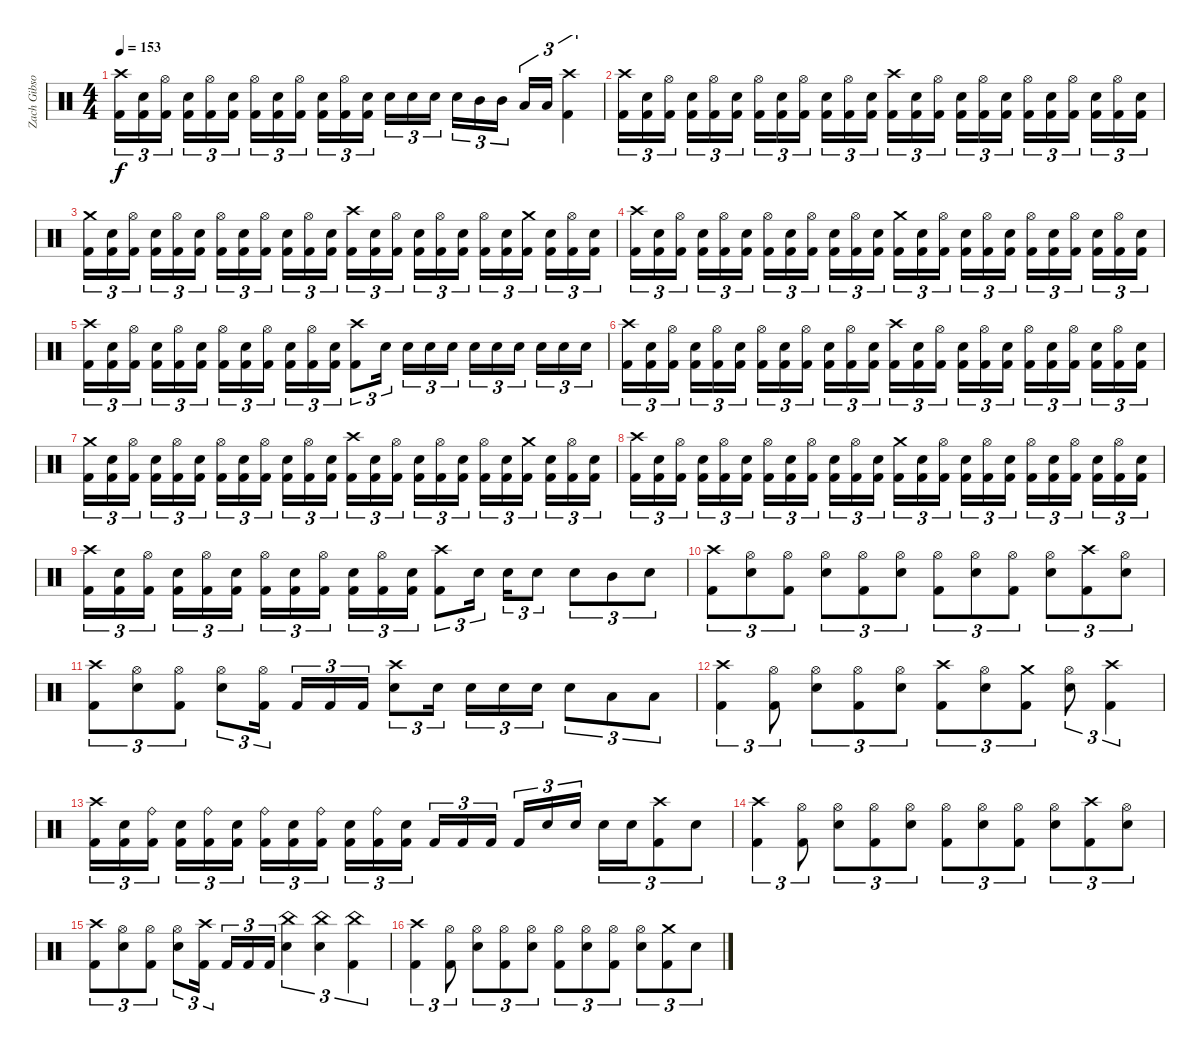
\track ("Zach Gibson (Drums)" "Zach Gibso") {instrument percussion}
\staff {score}
\articulation defaults
\ts (4 4)
\tempo 153
\clef neutral
\ks c
("Crash high (hit)" "Kick (hit) 2").16{tu (3 2) dy f} ("Snare (hit) 2" "Kick (hit) 2").16{tu (3 2)} ("Hi-Hat (open)" "Kick (hit) 2").16{tu (3 2)} ("Snare (hit) 2" "Kick (hit) 2").16{tu (3 2)} ("Hi-Hat (open)" "Kick (hit) 2").16{tu (3 2)} ("Snare (hit) 2" "Kick (hit) 2").16{tu (3 2)} ("Hi-Hat (open)" "Kick (hit) 2").16{tu (3 2)} ("Snare (hit) 2" "Kick (hit) 2").16{tu (3 2)} ("Hi-Hat (open)" "Kick (hit) 2").16{tu (3 2)} ("Snare (hit) 2" "Kick (hit) 2").16{tu (3 2)} ("Hi-Hat (open)" "Kick (hit) 2").16{tu (3 2)} ("Snare (hit) 2" "Kick (hit) 2").16{tu (3 2)} "Snare (hit) 2".16{tu (3 2)} "Snare (hit) 2".16{tu (3 2)} "Snare (hit) 2".16{tu (3 2)} "Snare (hit) 2".16{tu (3 2)} "Mid Tom (hit)".16{tu (3 2)} "Mid Tom (hit)".16{tu (3 2)} "Low Tom (hit)".16{tu (3 2)} "Low Tom (hit)".16{tu (3 2)} ("Crash high (hit)" "Kick (hit) 2").4{tu (3 2)} |
("Crash high (hit)" "Kick (hit) 2").16{tu (3 2)} ("Snare (hit) 2" "Kick (hit) 2").16{tu (3 2)} ("Hi-Hat (open)" "Kick (hit) 2").16{tu (3 2)} ("Snare (hit) 2" "Kick (hit) 2").16{tu (3 2)} ("Hi-Hat (open)" "Kick (hit) 2").16{tu (3 2)} ("Snare (hit) 2" "Kick (hit) 2").16{tu (3 2)} ("Hi-Hat (open)" "Kick (hit) 2").16{tu (3 2)} ("Snare (hit) 2" "Kick (hit) 2").16{tu (3 2)} ("Hi-Hat (open)" "Kick (hit) 2").16{tu (3 2)} ("Snare (hit) 2" "Kick (hit) 2").16{tu (3 2)} ("Hi-Hat (open)" "Kick (hit) 2").16{tu (3 2)} ("Snare (hit) 2" "Kick (hit) 2").16{tu (3 2)} ("Crash high (hit)" "Kick (hit) 2").16{tu (3 2)} ("Snare (hit) 2" "Kick (hit) 2").16{tu (3 2)} ("Hi-Hat (open)" "Kick (hit) 2").16{tu (3 2)} ("Snare (hit) 2" "Kick (hit) 2").16{tu (3 2)} ("Hi-Hat (open)" "Kick (hit) 2").16{tu (3 2)} ("Snare (hit) 2" "Kick (hit) 2").16{tu (3 2)} ("Hi-Hat (open)" "Kick (hit) 2").16{tu (3 2)} ("Snare (hit) 2" "Kick (hit) 2").16{tu (3 2)} ("Hi-Hat (open)" "Kick (hit) 2").16{tu (3 2)} ("Snare (hit) 2" "Kick (hit) 2").16{tu (3 2)} ("Hi-Hat (open)" "Kick (hit) 2").16{tu (3 2)} ("Snare (hit) 2" "Kick (hit) 2").16{tu (3 2)} |
("Crash medium (hit)" "Kick (hit) 2").16{tu (3 2)} ("Snare (hit) 2" "Kick (hit) 2").16{tu (3 2)} ("Hi-Hat (open)" "Kick (hit) 2").16{tu (3 2)} ("Snare (hit) 2" "Kick (hit) 2").16{tu (3 2)} ("Hi-Hat (open)" "Kick (hit) 2").16{tu (3 2)} ("Snare (hit) 2" "Kick (hit) 2").16{tu (3 2)} ("Hi-Hat (open)" "Kick (hit) 2").16{tu (3 2)} ("Snare (hit) 2" "Kick (hit) 2").16{tu (3 2)} ("Hi-Hat (open)" "Kick (hit) 2").16{tu (3 2)} ("Snare (hit) 2" "Kick (hit) 2").16{tu (3 2)} ("Hi-Hat (open)" "Kick (hit) 2").16{tu (3 2)} ("Snare (hit) 2" "Kick (hit) 2").16{tu (3 2)} ("Crash high (hit)" "Kick (hit) 2").16{tu (3 2)} ("Snare (hit) 2" "Kick (hit) 2").16{tu (3 2)} ("Hi-Hat (open)" "Kick (hit) 2").16{tu (3 2)} ("Snare (hit) 2" "Kick (hit) 2").16{tu (3 2)} ("Hi-Hat (open)" "Kick (hit) 2").16{tu (3 2)} ("Snare (hit) 2" "Kick (hit) 2").16{tu (3 2)} ("Hi-Hat (open)" "Kick (hit) 2").16{tu (3 2)} ("Snare (hit) 2" "Kick (hit) 2").16{tu (3 2)} ("Crash medium (hit)" "Kick (hit) 2").16{tu (3 2)} ("Snare (hit) 2" "Kick (hit) 2").16{tu (3 2)} ("Hi-Hat (open)" "Kick (hit) 2").16{tu (3 2)} ("Snare (hit) 2" "Kick (hit) 2").16{tu (3 2)} |
("Crash high (hit)" "Kick (hit) 2").16{tu (3 2)} ("Snare (hit) 2" "Kick (hit) 2").16{tu (3 2)} ("Hi-Hat (open)" "Kick (hit) 2").16{tu (3 2)} ("Snare (hit) 2" "Kick (hit) 2").16{tu (3 2)} ("Hi-Hat (open)" "Kick (hit) 2").16{tu (3 2)} ("Snare (hit) 2" "Kick (hit) 2").16{tu (3 2)} ("Hi-Hat (open)" "Kick (hit) 2").16{tu (3 2)} ("Snare (hit) 2" "Kick (hit) 2").16{tu (3 2)} ("Hi-Hat (open)" "Kick (hit) 2").16{tu (3 2)} ("Snare (hit) 2" "Kick (hit) 2").16{tu (3 2)} ("Hi-Hat (open)" "Kick (hit) 2").16{tu (3 2)} ("Snare (hit) 2" "Kick (hit) 2").16{tu (3 2)} ("Crash medium (hit)" "Kick (hit) 2").16{tu (3 2)} ("Snare (hit) 2" "Kick (hit) 2").16{tu (3 2)} ("Hi-Hat (open)" "Kick (hit) 2").16{tu (3 2)} ("Snare (hit) 2" "Kick (hit) 2").16{tu (3 2)} ("Hi-Hat (open)" "Kick (hit) 2").16{tu (3 2)} ("Snare (hit) 2" "Kick (hit) 2").16{tu (3 2)} ("Hi-Hat (open)" "Kick (hit) 2").16{tu (3 2)} ("Snare (hit) 2" "Kick (hit) 2").16{tu (3 2)} ("Hi-Hat (open)" "Kick (hit) 2").16{tu (3 2)} ("Snare (hit) 2" "Kick (hit) 2").16{tu (3 2)} ("Hi-Hat (open)" "Kick (hit) 2").16{tu (3 2)} ("Snare (hit) 2" "Kick (hit) 2").16{tu (3 2)} |
("Crash high (hit)" "Kick (hit) 2").16{tu (3 2)} ("Snare (hit) 2" "Kick (hit) 2").16{tu (3 2)} ("Hi-Hat (open)" "Kick (hit) 2").16{tu (3 2)} ("Snare (hit) 2" "Kick (hit) 2").16{tu (3 2)} ("Hi-Hat (open)" "Kick (hit) 2").16{tu (3 2)} ("Snare (hit) 2" "Kick (hit) 2").16{tu (3 2)} ("Hi-Hat (open)" "Kick (hit) 2").16{tu (3 2)} ("Snare (hit) 2" "Kick (hit) 2").16{tu (3 2)} ("Hi-Hat (open)" "Kick (hit) 2").16{tu (3 2)} ("Snare (hit) 2" "Kick (hit) 2").16{tu (3 2)} ("Hi-Hat (open)" "Kick (hit) 2").16{tu (3 2)} ("Snare (hit) 2" "Kick (hit) 2").16{tu (3 2)} ("Crash high (hit)" "Kick (hit) 2").8{tu (3 2)} "Snare (hit) 2".16{tu (3 2)} "Snare (hit) 2".16{tu (3 2)} "Snare (hit) 2".16{tu (3 2)} "Snare (hit) 2".16{tu (3 2)} "Snare (hit) 2".16{tu (3 2)} "Snare (hit) 2".16{tu (3 2)} "Snare (hit) 2".16{tu (3 2)} "Snare (hit) 2".16{tu (3 2)} "Snare (hit) 2".16{tu (3 2)} "Snare (hit) 2".16{tu (3 2)} |
("Crash high (hit)" "Kick (hit) 2").16{tu (3 2)} ("Snare (hit) 2" "Kick (hit) 2").16{tu (3 2)} ("Hi-Hat (open)" "Kick (hit) 2").16{tu (3 2)} ("Snare (hit) 2" "Kick (hit) 2").16{tu (3 2)} ("Hi-Hat (open)" "Kick (hit) 2").16{tu (3 2)} ("Snare (hit) 2" "Kick (hit) 2").16{tu (3 2)} ("Hi-Hat (open)" "Kick (hit) 2").16{tu (3 2)} ("Snare (hit) 2" "Kick (hit) 2").16{tu (3 2)} ("Hi-Hat (open)" "Kick (hit) 2").16{tu (3 2)} ("Snare (hit) 2" "Kick (hit) 2").16{tu (3 2)} ("Hi-Hat (open)" "Kick (hit) 2").16{tu (3 2)} ("Snare (hit) 2" "Kick (hit) 2").16{tu (3 2)} ("Crash high (hit)" "Kick (hit) 2").16{tu (3 2)} ("Snare (hit) 2" "Kick (hit) 2").16{tu (3 2)} ("Hi-Hat (open)" "Kick (hit) 2").16{tu (3 2)} ("Snare (hit) 2" "Kick (hit) 2").16{tu (3 2)} ("Hi-Hat (open)" "Kick (hit) 2").16{tu (3 2)} ("Snare (hit) 2" "Kick (hit) 2").16{tu (3 2)} ("Hi-Hat (open)" "Kick (hit) 2").16{tu (3 2)} ("Snare (hit) 2" "Kick (hit) 2").16{tu (3 2)} ("Hi-Hat (open)" "Kick (hit) 2").16{tu (3 2)} ("Snare (hit) 2" "Kick (hit) 2").16{tu (3 2)} ("Hi-Hat (open)" "Kick (hit) 2").16{tu (3 2)} ("Snare (hit) 2" "Kick (hit) 2").16{tu (3 2)} |
("Crash medium (hit)" "Kick (hit) 2").16{tu (3 2)} ("Snare (hit) 2" "Kick (hit) 2").16{tu (3 2)} ("Hi-Hat (open)" "Kick (hit) 2").16{tu (3 2)} ("Snare (hit) 2" "Kick (hit) 2").16{tu (3 2)} ("Hi-Hat (open)" "Kick (hit) 2").16{tu (3 2)} ("Snare (hit) 2" "Kick (hit) 2").16{tu (3 2)} ("Hi-Hat (open)" "Kick (hit) 2").16{tu (3 2)} ("Snare (hit) 2" "Kick (hit) 2").16{tu (3 2)} ("Hi-Hat (open)" "Kick (hit) 2").16{tu (3 2)} ("Snare (hit) 2" "Kick (hit) 2").16{tu (3 2)} ("Hi-Hat (open)" "Kick (hit) 2").16{tu (3 2)} ("Snare (hit) 2" "Kick (hit) 2").16{tu (3 2)} ("Crash high (hit)" "Kick (hit) 2").16{tu (3 2)} ("Snare (hit) 2" "Kick (hit) 2").16{tu (3 2)} ("Hi-Hat (open)" "Kick (hit) 2").16{tu (3 2)} ("Snare (hit) 2" "Kick (hit) 2").16{tu (3 2)} ("Hi-Hat (open)" "Kick (hit) 2").16{tu (3 2)} ("Snare (hit) 2" "Kick (hit) 2").16{tu (3 2)} ("Hi-Hat (open)" "Kick (hit) 2").16{tu (3 2)} ("Snare (hit) 2" "Kick (hit) 2").16{tu (3 2)} ("Crash medium (hit)" "Kick (hit) 2").16{tu (3 2)} ("Snare (hit) 2" "Kick (hit) 2").16{tu (3 2)} ("Hi-Hat (open)" "Kick (hit) 2").16{tu (3 2)} ("Snare (hit) 2" "Kick (hit) 2").16{tu (3 2)} |
("Crash high (hit)" "Kick (hit) 2").16{tu (3 2)} ("Snare (hit) 2" "Kick (hit) 2").16{tu (3 2)} ("Hi-Hat (open)" "Kick (hit) 2").16{tu (3 2)} ("Snare (hit) 2" "Kick (hit) 2").16{tu (3 2)} ("Hi-Hat (open)" "Kick (hit) 2").16{tu (3 2)} ("Snare (hit) 2" "Kick (hit) 2").16{tu (3 2)} ("Hi-Hat (open)" "Kick (hit) 2").16{tu (3 2)} ("Snare (hit) 2" "Kick (hit) 2").16{tu (3 2)} ("Hi-Hat (open)" "Kick (hit) 2").16{tu (3 2)} ("Snare (hit) 2" "Kick (hit) 2").16{tu (3 2)} ("Hi-Hat (open)" "Kick (hit) 2").16{tu (3 2)} ("Snare (hit) 2" "Kick (hit) 2").16{tu (3 2)} ("Crash medium (hit)" "Kick (hit) 2").16{tu (3 2)} ("Snare (hit) 2" "Kick (hit) 2").16{tu (3 2)} ("Hi-Hat (open)" "Kick (hit) 2").16{tu (3 2)} ("Snare (hit) 2" "Kick (hit) 2").16{tu (3 2)} ("Hi-Hat (open)" "Kick (hit) 2").16{tu (3 2)} ("Snare (hit) 2" "Kick (hit) 2").16{tu (3 2)} ("Hi-Hat (open)" "Kick (hit) 2").16{tu (3 2)} ("Snare (hit) 2" "Kick (hit) 2").16{tu (3 2)} ("Hi-Hat (open)" "Kick (hit) 2").16{tu (3 2)} ("Snare (hit) 2" "Kick (hit) 2").16{tu (3 2)} ("Hi-Hat (open)" "Kick (hit) 2").16{tu (3 2)} ("Snare (hit) 2" "Kick (hit) 2").16{tu (3 2)} |
("Crash high (hit)" "Kick (hit) 2").16{tu (3 2)} ("Snare (hit) 2" "Kick (hit) 2").16{tu (3 2)} ("Hi-Hat (open)" "Kick (hit) 2").16{tu (3 2)} ("Snare (hit) 2" "Kick (hit) 2").16{tu (3 2)} ("Hi-Hat (open)" "Kick (hit) 2").16{tu (3 2)} ("Snare (hit) 2" "Kick (hit) 2").16{tu (3 2)} ("Hi-Hat (open)" "Kick (hit) 2").16{tu (3 2)} ("Snare (hit) 2" "Kick (hit) 2").16{tu (3 2)} ("Hi-Hat (open)" "Kick (hit) 2").16{tu (3 2)} ("Snare (hit) 2" "Kick (hit) 2").16{tu (3 2)} ("Hi-Hat (open)" "Kick (hit) 2").16{tu (3 2)} ("Snare (hit) 2" "Kick (hit) 2").16{tu (3 2)} ("Crash high (hit)" "Kick (hit) 2").8{tu (3 2)} "Snare (hit) 2".16{tu (3 2)} "Snare (hit) 2".16{tu (3 2)} "Snare (hit) 2".8{tu (3 2)} "Snare (hit) 2".8{tu (3 2)} "Mid Tom (hit)".8{tu (3 2)} "Snare (hit) 2".8{tu (3 2)} |
("Crash high (hit)" "Kick (hit) 2").8{tu (3 2)} ("Hi-Hat (open)" "Snare (hit) 2").8{tu (3 2)} ("Hi-Hat (open)" "Kick (hit) 2").8{tu (3 2)} ("Hi-Hat (open)" "Snare (hit) 2").8{tu (3 2)} ("Hi-Hat (open)" "Kick (hit) 2").8{tu (3 2)} ("Hi-Hat (open)" "Snare (hit) 2").8{tu (3 2)} ("Hi-Hat (open)" "Kick (hit) 2").8{tu (3 2)} ("Hi-Hat (open)" "Snare (hit) 2").8{tu (3 2)} ("Hi-Hat (open)" "Kick (hit) 2").8{tu (3 2)} ("Hi-Hat (open)" "Snare (hit) 2").8{tu (3 2)} ("Crash high (hit)" "Kick (hit) 2").8{tu (3 2)} ("Hi-Hat (open)" "Snare (hit) 2").8{tu (3 2)} |
("Crash high (hit)" "Kick (hit) 2").8{tu (3 2)} ("Hi-Hat (open)" "Snare (hit) 2").8{tu (3 2)} ("Hi-Hat (open)" "Kick (hit) 2").8{tu (3 2)} ("Hi-Hat (open)" "Snare (hit) 2").8{tu (3 2)} ("Hi-Hat (open)" "Kick (hit) 2").16{tu (3 2)} "Kick (hit) 2".16{tu (3 2)} "Kick (hit) 2".16{tu (3 2)} "Kick (hit) 2".16{tu (3 2)} ("Crash high (hit)" "Snare (hit) 2").8{tu (3 2)} "Snare (hit) 2".16{tu (3 2)} "Snare (hit) 2".16{tu (3 2)} "Snare (hit) 2".16{tu (3 2)} "Snare (hit) 2".16{tu (3 2)} "Snare (hit) 2".8{tu (3 2)} "Low Tom (hit)".8{tu (3 2)} "Low Floor Tom (hit)".8{tu (3 2)} |
("Crash high (hit)" "Kick (hit) 2").4{tu (3 2)} ("Hi-Hat (open)" "Kick (hit) 2").8{tu (3 2)} ("Hi-Hat (open)" "Snare (hit) 2").8{tu (3 2)} ("Hi-Hat (open)" "Kick (hit) 2").8{tu (3 2)} ("Hi-Hat (open)" "Snare (hit) 2").8{tu (3 2)} ("Crash high (hit)" "Kick (hit) 2").8{tu (3 2)} ("Hi-Hat (open)" "Snare (hit) 2").8{tu (3 2)} ("Crash medium (hit)" "Kick (hit) 2").8{tu (3 2)} ("Hi-Hat (open)" "Snare (hit) 2").8{tu (3 2)} ("Crash high (hit)" "Kick (hit) 2").4{tu (3 2)} |
("Crash high (hit)" "Kick (hit) 2").16{tu (3 2)} ("Snare (hit) 2" "Kick (hit) 2").16{tu (3 2)} ("Ride (bell)" "Kick (hit) 2").16{tu (3 2)} ("Snare (hit) 2" "Kick (hit) 2").16{tu (3 2)} ("Ride (bell)" "Kick (hit) 2").16{tu (3 2)} ("Snare (hit) 2" "Kick (hit) 2").16{tu (3 2)} ("Ride (bell)" "Kick (hit) 2").16{tu (3 2)} ("Snare (hit) 2" "Kick (hit) 2").16{tu (3 2)} ("Ride (bell)" "Kick (hit) 2").16{tu (3 2)} ("Snare (hit) 2" "Kick (hit) 2").16{tu (3 2)} ("Ride (bell)" "Kick (hit) 2").16{tu (3 2)} ("Snare (hit) 2" "Kick (hit) 2").16{tu (3 2)} "Kick (hit) 2".16{tu (3 2)} "Kick (hit) 2".16{tu (3 2)} "Kick (hit) 2".16{tu (3 2)} "Kick (hit) 2".16{tu (3 2)} "Snare (hit) 2".16{tu (3 2)} "Snare (hit) 2".16{tu (3 2)} "Snare (hit) 2".16{tu (3 2)} "Snare (hit) 2".16{tu (3 2)} ("Crash high (hit)" "Kick (hit) 2").8{tu (3 2)} "Snare (hit) 2".8{tu (3 2)} |
("Crash high (hit)" "Kick (hit) 2").4{tu (3 2)} ("Hi-Hat (open)" "Kick (hit) 2").8{tu (3 2)} ("Hi-Hat (open)" "Snare (hit) 2").8{tu (3 2)} ("Hi-Hat (open)" "Kick (hit) 2").8{tu (3 2)} ("Hi-Hat (open)" "Snare (hit) 2").8{tu (3 2)} ("Hi-Hat (open)" "Kick (hit) 2").8{tu (3 2)} ("Hi-Hat (open)" "Snare (hit) 2").8{tu (3 2)} ("Hi-Hat (open)" "Kick (hit) 2").8{tu (3 2)} ("Hi-Hat (open)" "Snare (hit) 2").8{tu (3 2)} ("Crash high (hit)" "Kick (hit) 2").8{tu (3 2)} ("Hi-Hat (open)" "Snare (hit) 2").8{tu (3 2)} |
("Crash high (hit)" "Kick (hit) 2").8{tu (3 2)} ("Hi-Hat (open)" "Snare (hit) 2").8{tu (3 2)} ("Hi-Hat (open)" "Kick (hit) 2").8{tu (3 2)} ("Hi-Hat (open)" "Snare (hit) 2").8{tu (3 2)} ("Crash high (hit)" "Kick (hit) 2").16{tu (3 2)} "Kick (hit) 2".16{tu (3 2)} "Kick (hit) 2".16{tu (3 2)} "Kick (hit) 2".16{tu (3 2)} ("China (hit)" "Snare (hit) 2").4{tu (3 2)} ("China (hit)" "Snare (hit) 2").4{tu (3 2)} ("China (hit)" "Kick (hit) 2").4{tu (3 2)} |
("Crash high (hit)" "Kick (hit) 2").4{tu (3 2)} ("Hi-Hat (open)" "Kick (hit) 2").8{tu (3 2)} ("Hi-Hat (open)" "Snare (hit) 2").8{tu (3 2)} ("Hi-Hat (open)" "Kick (hit) 2").8{tu (3 2)} ("Hi-Hat (open)" "Snare (hit) 2").8{tu (3 2)} ("Hi-Hat (open)" "Kick (hit) 2").8{tu (3 2)} ("Hi-Hat (open)" "Snare (hit) 2").8{tu (3 2)} ("Hi-Hat (open)" "Kick (hit) 2").8{tu (3 2)} ("Hi-Hat (open)" "Snare (hit) 2").8{tu (3 2)} ("Crash medium (hit)" "Kick (hit) 2").8{tu (3 2)} "Snare (hit) 2".8{tu (3 2)}
